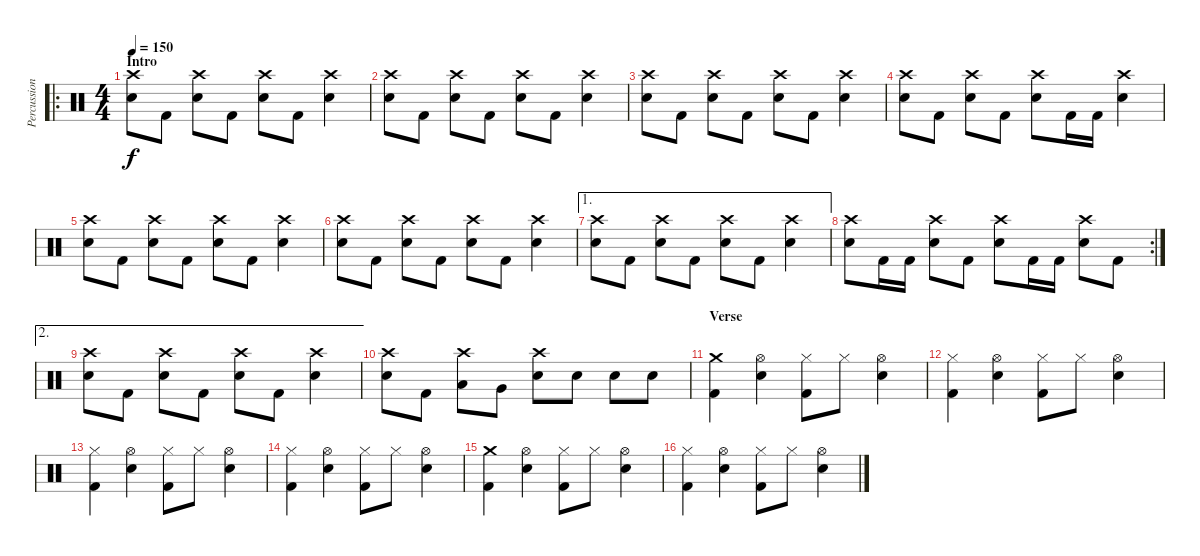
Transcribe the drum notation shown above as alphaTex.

\track ("Percussion" "Percussion") {instrument percussion}
\staff {score}
\articulation defaults
\ro
\ts (4 4)
\section ("" "Intro")
\tempo 150
\clef neutral
\ks c
("Crash high (hit)" "Electric Snare (hit)").8{dy f} "Kick (hit) 2".8 ("Crash high (hit)" "Electric Snare (hit)").8 "Kick (hit) 2".8 ("Crash high (hit)" "Electric Snare (hit)").8 "Kick (hit) 2".8 ("Crash high (hit)" "Electric Snare (hit)").4 |
("Crash high (hit)" "Electric Snare (hit)").8 "Kick (hit) 2".8 ("Crash high (hit)" "Electric Snare (hit)").8 "Kick (hit) 2".8 ("Crash high (hit)" "Electric Snare (hit)").8 "Kick (hit) 2".8 ("Crash high (hit)" "Electric Snare (hit)").4 |
("Crash high (hit)" "Electric Snare (hit)").8 "Kick (hit) 2".8 ("Crash high (hit)" "Electric Snare (hit)").8 "Kick (hit) 2".8 ("Crash high (hit)" "Electric Snare (hit)").8 "Kick (hit) 2".8 ("Crash high (hit)" "Electric Snare (hit)").4 |
("Crash high (hit)" "Electric Snare (hit)").8 "Kick (hit) 2".8 ("Crash high (hit)" "Electric Snare (hit)").8 "Kick (hit) 2".8 ("Crash high (hit)" "Electric Snare (hit)").8 "Kick (hit) 2".16 "Kick (hit) 2".16 ("Crash high (hit)" "Electric Snare (hit)").4 |
("Crash high (hit)" "Electric Snare (hit)").8 "Kick (hit) 2".8 ("Crash high (hit)" "Electric Snare (hit)").8 "Kick (hit) 2".8 ("Crash high (hit)" "Electric Snare (hit)").8 "Kick (hit) 2".8 ("Crash high (hit)" "Electric Snare (hit)").4 |
("Crash high (hit)" "Electric Snare (hit)").8 "Kick (hit) 2".8 ("Crash high (hit)" "Electric Snare (hit)").8 "Kick (hit) 2".8 ("Crash high (hit)" "Electric Snare (hit)").8 "Kick (hit) 2".8 ("Crash high (hit)" "Electric Snare (hit)").4 |
\ae 1
("Crash high (hit)" "Electric Snare (hit)").8 "Kick (hit) 2".8 ("Crash high (hit)" "Electric Snare (hit)").8 "Kick (hit) 2".8 ("Crash high (hit)" "Electric Snare (hit)").8 "Kick (hit) 2".8 ("Crash high (hit)" "Electric Snare (hit)").4 |
\rc 2
("Crash high (hit)" "Electric Snare (hit)").8 "Kick (hit) 2".16 "Kick (hit) 2".16 ("Crash high (hit)" "Electric Snare (hit)").8 "Kick (hit) 2".8 ("Crash high (hit)" "Electric Snare (hit)").8 "Kick (hit) 2".16 "Kick (hit) 2".16 ("Crash high (hit)" "Electric Snare (hit)").8 "Kick (hit) 2".8 |
\ae 2
("Crash high (hit)" "Electric Snare (hit)").8 "Kick (hit) 2".8 ("Crash high (hit)" "Electric Snare (hit)").8 "Kick (hit) 2".8 ("Crash high (hit)" "Electric Snare (hit)").8 "Kick (hit) 2".8 ("Crash high (hit)" "Electric Snare (hit)").4 |
("Crash high (hit)" "Electric Snare (hit)").8 "Kick (hit) 2".8 ("Crash high (hit)" "Low Tom (hit)").8 "Very Low Tom (hit)".8 ("Crash high (hit)" "Electric Snare (hit)").8 "Electric Snare (hit)".8 "Electric Snare (hit)".8 "Electric Snare (hit)".8 |
\section ("" "Verse")
("Crash medium (hit)" "Kick (hit) 2").4 ("Hi-Hat (open)" "Electric Snare (hit)").4 ("Hi-Hat (closed)" "Kick (hit) 2").8 "Hi-Hat (closed)".8 ("Hi-Hat (open)" "Electric Snare (hit)").4 |
("Hi-Hat (closed)" "Kick (hit) 2").4 ("Hi-Hat (open)" "Electric Snare (hit)").4 ("Hi-Hat (closed)" "Kick (hit) 2").8 "Hi-Hat (closed)".8 ("Hi-Hat (open)" "Electric Snare (hit)").4 |
("Hi-Hat (closed)" "Kick (hit) 2").4 ("Hi-Hat (open)" "Electric Snare (hit)").4 ("Hi-Hat (closed)" "Kick (hit) 2").8 "Hi-Hat (closed)".8 ("Hi-Hat (open)" "Electric Snare (hit)").4 |
("Hi-Hat (closed)" "Kick (hit) 2").4 ("Hi-Hat (open)" "Electric Snare (hit)").4 ("Hi-Hat (closed)" "Kick (hit) 2").8 "Hi-Hat (closed)".8 ("Hi-Hat (open)" "Electric Snare (hit)").4 |
("Crash medium (hit)" "Kick (hit) 2").4 ("Hi-Hat (open)" "Electric Snare (hit)").4 ("Hi-Hat (closed)" "Kick (hit) 2").8 "Hi-Hat (closed)".8 ("Hi-Hat (open)" "Electric Snare (hit)").4 |
("Hi-Hat (closed)" "Kick (hit) 2").4 ("Hi-Hat (open)" "Electric Snare (hit)").4 ("Hi-Hat (closed)" "Kick (hit) 2").8 "Hi-Hat (closed)".8 ("Hi-Hat (open)" "Electric Snare (hit)").4
